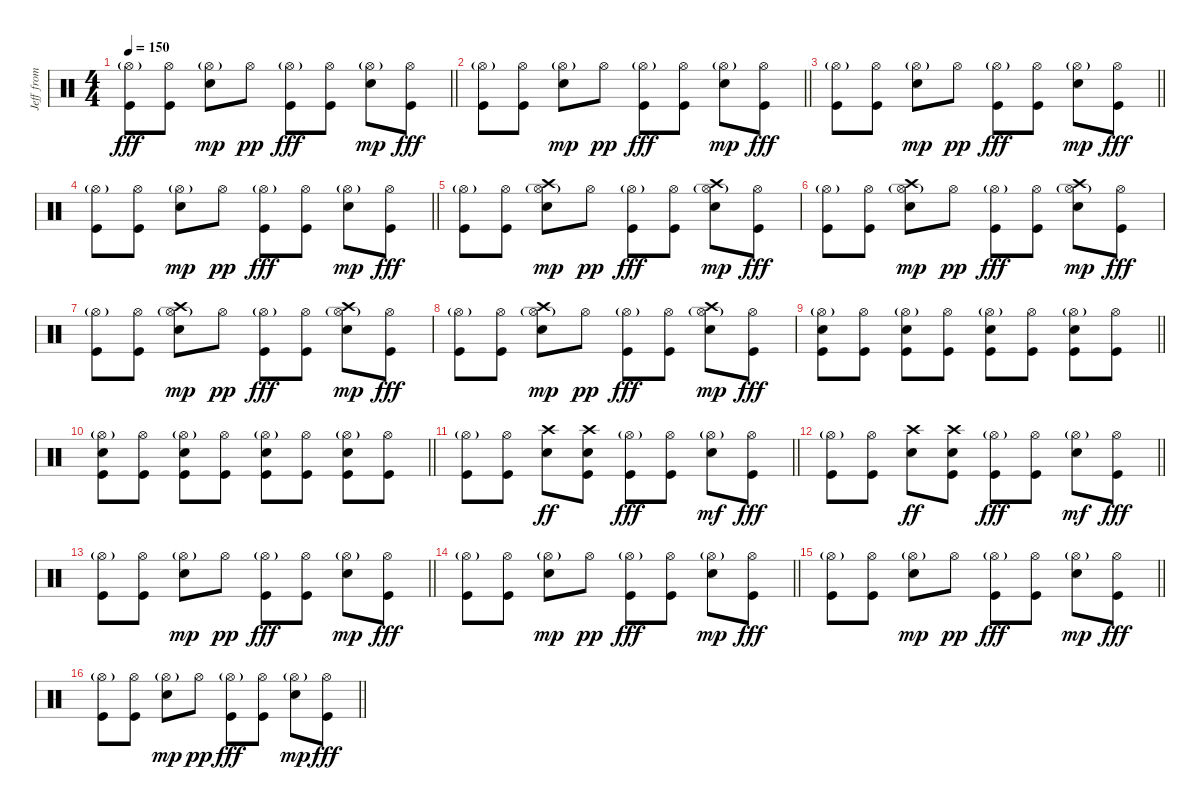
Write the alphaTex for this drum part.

\track ("Jeff from Chelsea - Drum" "Jeff from ") {instrument percussion bank 27}
\staff {score}
\articulation defaults
\ts (4 4)
\tempo 150
\clef neutral
\barLineRight lightlight
\ks c
("Hi-Hat (open)"{g} "Kick (hit)").8{dy fff} ("Hi-Hat (open)" "Kick (hit)").8 ("Hi-Hat (open)"{g} "Snare (hit) 2").8{dy mp} "Hi-Hat (open)".8{dy pp} ("Hi-Hat (open)"{g} "Kick (hit)").8{dy fff} ("Hi-Hat (open)" "Kick (hit)").8 ("Hi-Hat (open)"{g} "Snare (hit) 2").8{dy mp} ("Hi-Hat (open)" "Kick (hit)").8{dy fff} |
\barLineRight lightlight
("Hi-Hat (open)"{g} "Kick (hit)").8 ("Hi-Hat (open)" "Kick (hit)").8 ("Hi-Hat (open)"{g} "Snare (hit) 2").8{dy mp} "Hi-Hat (open)".8{dy pp} ("Hi-Hat (open)"{g} "Kick (hit)").8{dy fff} ("Hi-Hat (open)" "Kick (hit)").8 ("Hi-Hat (open)"{g} "Snare (hit) 2").8{dy mp} ("Hi-Hat (open)" "Kick (hit)").8{dy fff} |
\barLineRight lightlight
("Hi-Hat (open)"{g} "Kick (hit)").8 ("Hi-Hat (open)" "Kick (hit)").8 ("Hi-Hat (open)"{g} "Snare (hit) 2").8{dy mp} "Hi-Hat (open)".8{dy pp} ("Hi-Hat (open)"{g} "Kick (hit)").8{dy fff} ("Hi-Hat (open)" "Kick (hit)").8 ("Hi-Hat (open)"{g} "Snare (hit) 2").8{dy mp} ("Hi-Hat (open)" "Kick (hit)").8{dy fff} |
\barLineRight lightlight
("Hi-Hat (open)"{g} "Kick (hit)").8 ("Hi-Hat (open)" "Kick (hit)").8 ("Hi-Hat (open)"{g} "Snare (hit) 2").8{dy mp} "Hi-Hat (open)".8{dy pp} ("Hi-Hat (open)"{g} "Kick (hit)").8{dy fff} ("Hi-Hat (open)" "Kick (hit)").8 ("Hi-Hat (open)"{g} "Snare (hit) 2").8{dy mp} ("Hi-Hat (open)" "Kick (hit)").8{dy fff} |
("Hi-Hat (open)"{g} "Kick (hit)").8 ("Hi-Hat (open)" "Kick (hit)").8 ("Crash high (hit)" "Hi-Hat (open)"{g} "Snare (hit) 2").8{dy mp} "Hi-Hat (open)".8{dy pp} ("Hi-Hat (open)"{g} "Kick (hit)").8{dy fff} ("Hi-Hat (open)" "Kick (hit)").8 ("Crash high (hit)" "Hi-Hat (open)"{g} "Snare (hit) 2").8{dy mp} ("Hi-Hat (open)" "Kick (hit)").8{dy fff} |
("Hi-Hat (open)"{g} "Kick (hit)").8 ("Hi-Hat (open)" "Kick (hit)").8 ("Crash high (hit)" "Hi-Hat (open)"{g} "Snare (hit) 2").8{dy mp} "Hi-Hat (open)".8{dy pp} ("Hi-Hat (open)"{g} "Kick (hit)").8{dy fff} ("Hi-Hat (open)" "Kick (hit)").8 ("Crash high (hit)" "Hi-Hat (open)"{g} "Snare (hit) 2").8{dy mp} ("Hi-Hat (open)" "Kick (hit)").8{dy fff} |
("Hi-Hat (open)"{g} "Kick (hit)").8 ("Hi-Hat (open)" "Kick (hit)").8 ("Crash high (hit)" "Hi-Hat (open)"{g} "Snare (hit) 2").8{dy mp} "Hi-Hat (open)".8{dy pp} ("Hi-Hat (open)"{g} "Kick (hit)").8{dy fff} ("Hi-Hat (open)" "Kick (hit)").8 ("Crash high (hit)" "Hi-Hat (open)"{g} "Snare (hit) 2").8{dy mp} ("Hi-Hat (open)" "Kick (hit)").8{dy fff} |
("Hi-Hat (open)"{g} "Kick (hit)").8 ("Hi-Hat (open)" "Kick (hit)").8 ("Crash high (hit)" "Hi-Hat (open)"{g} "Snare (hit) 2").8{dy mp} "Hi-Hat (open)".8{dy pp} ("Hi-Hat (open)"{g} "Kick (hit)").8{dy fff} ("Hi-Hat (open)" "Kick (hit)").8 ("Crash high (hit)" "Hi-Hat (open)"{g} "Snare (hit) 2").8{dy mp} ("Hi-Hat (open)" "Kick (hit)").8{dy fff} |
\barLineRight lightlight
("Hi-Hat (open)"{g} "Snare (hit) 2" "Kick (hit)").8 ("Hi-Hat (open)" "Kick (hit)").8 ("Hi-Hat (open)"{g} "Snare (hit) 2" "Kick (hit)").8 ("Hi-Hat (open)" "Kick (hit)").8 ("Hi-Hat (open)"{g} "Snare (hit) 2" "Kick (hit)").8 ("Hi-Hat (open)" "Kick (hit)").8 ("Hi-Hat (open)"{g} "Snare (hit) 2" "Kick (hit)").8 ("Hi-Hat (open)" "Kick (hit)").8 |
\barLineRight lightlight
("Hi-Hat (open)"{g} "Snare (hit) 2" "Kick (hit)").8 ("Hi-Hat (open)" "Kick (hit)").8 ("Hi-Hat (open)"{g} "Snare (hit) 2" "Kick (hit)").8 ("Hi-Hat (open)" "Kick (hit)").8 ("Hi-Hat (open)"{g} "Snare (hit) 2" "Kick (hit)").8 ("Hi-Hat (open)" "Kick (hit)").8 ("Hi-Hat (open)"{g} "Snare (hit) 2" "Kick (hit)").8 ("Hi-Hat (open)" "Kick (hit)").8 |
\barLineRight lightlight
("Hi-Hat (open)"{g} "Kick (hit)").8 ("Hi-Hat (open)" "Kick (hit)").8 ("Crash high (hit)" "Snare (hit) 2").8{dy ff} ("Crash high (hit)" "Snare (hit) 2" "Kick (hit)").8 ("Hi-Hat (open)"{g} "Kick (hit)").8{dy fff} ("Hi-Hat (open)" "Kick (hit)").8 ("Hi-Hat (open)"{g} "Snare (hit) 2").8{dy mf} ("Hi-Hat (open)" "Kick (hit)").8{dy fff} |
\barLineRight lightlight
("Hi-Hat (open)"{g} "Kick (hit)").8 ("Hi-Hat (open)" "Kick (hit)").8 ("Crash high (hit)" "Snare (hit) 2").8{dy ff} ("Crash high (hit)" "Snare (hit) 2" "Kick (hit)").8 ("Hi-Hat (open)"{g} "Kick (hit)").8{dy fff} ("Hi-Hat (open)" "Kick (hit)").8 ("Hi-Hat (open)"{g} "Snare (hit) 2").8{dy mf} ("Hi-Hat (open)" "Kick (hit)").8{dy fff} |
\barLineRight lightlight
("Hi-Hat (open)"{g} "Kick (hit)").8 ("Hi-Hat (open)" "Kick (hit)").8 ("Hi-Hat (open)"{g} "Snare (hit) 2").8{dy mp} "Hi-Hat (open)".8{dy pp} ("Hi-Hat (open)"{g} "Kick (hit)").8{dy fff} ("Hi-Hat (open)" "Kick (hit)").8 ("Hi-Hat (open)"{g} "Snare (hit) 2").8{dy mp} ("Hi-Hat (open)" "Kick (hit)").8{dy fff} |
\barLineRight lightlight
("Hi-Hat (open)"{g} "Kick (hit)").8 ("Hi-Hat (open)" "Kick (hit)").8 ("Hi-Hat (open)"{g} "Snare (hit) 2").8{dy mp} "Hi-Hat (open)".8{dy pp} ("Hi-Hat (open)"{g} "Kick (hit)").8{dy fff} ("Hi-Hat (open)" "Kick (hit)").8 ("Hi-Hat (open)"{g} "Snare (hit) 2").8{dy mp} ("Hi-Hat (open)" "Kick (hit)").8{dy fff} |
\barLineRight lightlight
("Hi-Hat (open)"{g} "Kick (hit)").8 ("Hi-Hat (open)" "Kick (hit)").8 ("Hi-Hat (open)"{g} "Snare (hit) 2").8{dy mp} "Hi-Hat (open)".8{dy pp} ("Hi-Hat (open)"{g} "Kick (hit)").8{dy fff} ("Hi-Hat (open)" "Kick (hit)").8 ("Hi-Hat (open)"{g} "Snare (hit) 2").8{dy mp} ("Hi-Hat (open)" "Kick (hit)").8{dy fff} |
\barLineRight lightlight
("Hi-Hat (open)"{g} "Kick (hit)").8 ("Hi-Hat (open)" "Kick (hit)").8 ("Hi-Hat (open)"{g} "Snare (hit) 2").8{dy mp} "Hi-Hat (open)".8{dy pp} ("Hi-Hat (open)"{g} "Kick (hit)").8{dy fff} ("Hi-Hat (open)" "Kick (hit)").8 ("Hi-Hat (open)"{g} "Snare (hit) 2").8{dy mp} ("Hi-Hat (open)" "Kick (hit)").8{dy fff}
